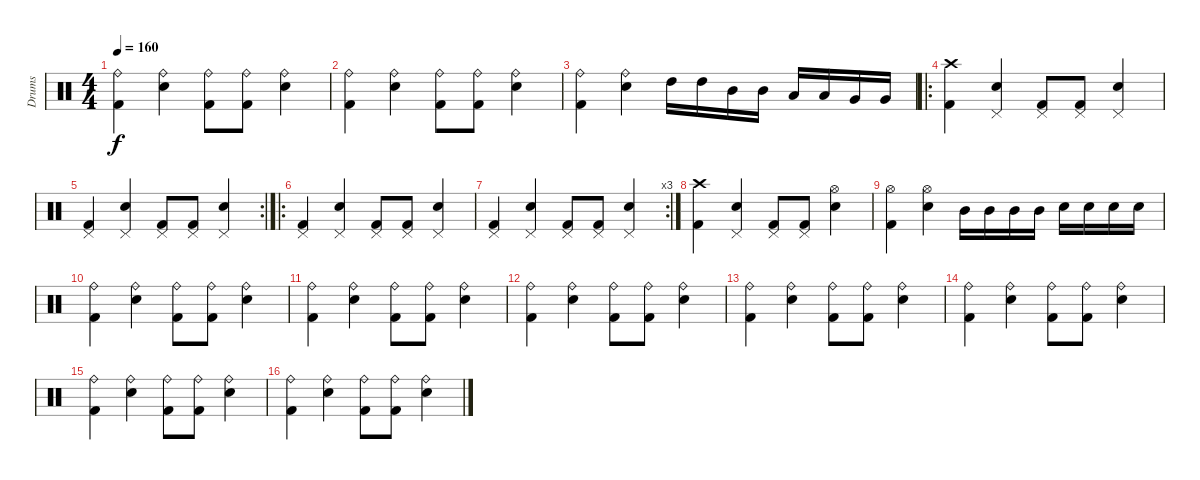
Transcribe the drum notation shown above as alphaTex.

\track ("Drums" "Drums") {instrument percussion}
\staff {score}
\articulation defaults
\ts (4 4)
\tempo 160
\clef neutral
\ks c
("Kick (hit) 2" "Ride (bell)").4{dy f} ("Electric Snare (hit)" "Ride (bell)").4 ("Kick (hit) 2" "Ride (bell)").8 ("Kick (hit) 2" "Ride (bell)").8 ("Electric Snare (hit)" "Ride (bell)").4 |
("Kick (hit) 2" "Ride (bell)").4 ("Electric Snare (hit)" "Ride (bell)").4 ("Kick (hit) 2" "Ride (bell)").8 ("Kick (hit) 2" "Ride (bell)").8 ("Electric Snare (hit)" "Ride (bell)").4 |
("Kick (hit) 2" "Ride (bell)").4 ("Electric Snare (hit)" "Ride (bell)").4 "High Tom (hit)".16 "High Tom (hit)".16 "Mid Tom (hit)".16 "Mid Tom (hit)".16 "Low Tom (hit)".16 "Low Tom (hit)".16 "Very Low Tom (hit)".16 "Very Low Tom (hit)".16 |
\ro
("Crash high (hit)" "Kick (hit) 2").4 ("Electric Snare (hit)" "Pedal Hi-Hat (hit)").4 ("Kick (hit) 2" "Pedal Hi-Hat (hit)").8 ("Kick (hit) 2" "Pedal Hi-Hat (hit)").8 ("Electric Snare (hit)" "Pedal Hi-Hat (hit)").4 |
\rc 2
("Kick (hit) 2" "Pedal Hi-Hat (hit)").4 ("Electric Snare (hit)" "Pedal Hi-Hat (hit)").4 ("Kick (hit) 2" "Pedal Hi-Hat (hit)").8 ("Kick (hit) 2" "Pedal Hi-Hat (hit)").8 ("Electric Snare (hit)" "Pedal Hi-Hat (hit)").4 |
\ro
("Pedal Hi-Hat (hit)" "Kick (hit) 2").4 ("Electric Snare (hit)" "Pedal Hi-Hat (hit)").4 ("Kick (hit) 2" "Pedal Hi-Hat (hit)").8 ("Kick (hit) 2" "Pedal Hi-Hat (hit)").8 ("Electric Snare (hit)" "Pedal Hi-Hat (hit)").4 |
\rc 3
("Kick (hit) 2" "Pedal Hi-Hat (hit)").4 ("Electric Snare (hit)" "Pedal Hi-Hat (hit)").4 ("Kick (hit) 2" "Pedal Hi-Hat (hit)").8 ("Kick (hit) 2" "Pedal Hi-Hat (hit)").8 ("Electric Snare (hit)" "Pedal Hi-Hat (hit)").4 |
("Crash high (hit)" "Kick (hit) 2").4 ("Electric Snare (hit)" "Pedal Hi-Hat (hit)").4 ("Kick (hit) 2" "Pedal Hi-Hat (hit)").8 ("Kick (hit) 2" "Pedal Hi-Hat (hit)").8 ("Electric Snare (hit)" "Hi-Hat (open)").4 |
("Kick (hit) 2" "Hi-Hat (open)").4 ("Electric Snare (hit)" "Hi-Hat (open)").4 "Mid Tom (hit)".16 "Mid Tom (hit)".16 "Mid Tom (hit)".16 "Mid Tom (hit)".16 "Electric Snare (hit)".16 "Electric Snare (hit)".16 "Electric Snare (hit)".16 "Electric Snare (hit)".16 |
("Ride (bell)" "Kick (hit) 2").4 ("Electric Snare (hit)" "Ride (bell)").4 ("Kick (hit) 2" "Ride (bell)").8 ("Kick (hit) 2" "Ride (bell)").8 ("Electric Snare (hit)" "Ride (bell)").4 |
("Kick (hit) 2" "Ride (bell)").4 ("Electric Snare (hit)" "Ride (bell)").4 ("Kick (hit) 2" "Ride (bell)").8 ("Kick (hit) 2" "Ride (bell)").8 ("Electric Snare (hit)" "Ride (bell)").4 |
("Ride (bell)" "Kick (hit) 2").4 ("Electric Snare (hit)" "Ride (bell)").4 ("Kick (hit) 2" "Ride (bell)").8 ("Kick (hit) 2" "Ride (bell)").8 ("Electric Snare (hit)" "Ride (bell)").4 |
("Kick (hit) 2" "Ride (bell)").4 ("Electric Snare (hit)" "Ride (bell)").4 ("Kick (hit) 2" "Ride (bell)").8 ("Kick (hit) 2" "Ride (bell)").8 ("Electric Snare (hit)" "Ride (bell)").4 |
("Ride (bell)" "Kick (hit) 2").4 ("Electric Snare (hit)" "Ride (bell)").4 ("Kick (hit) 2" "Ride (bell)").8 ("Kick (hit) 2" "Ride (bell)").8 ("Electric Snare (hit)" "Ride (bell)").4 |
("Kick (hit) 2" "Ride (bell)").4 ("Electric Snare (hit)" "Ride (bell)").4 ("Kick (hit) 2" "Ride (bell)").8 ("Kick (hit) 2" "Ride (bell)").8 ("Electric Snare (hit)" "Ride (bell)").4 |
("Ride (bell)" "Kick (hit) 2").4 ("Electric Snare (hit)" "Ride (bell)").4 ("Kick (hit) 2" "Ride (bell)").8 ("Kick (hit) 2" "Ride (bell)").8 ("Electric Snare (hit)" "Ride (bell)").4
